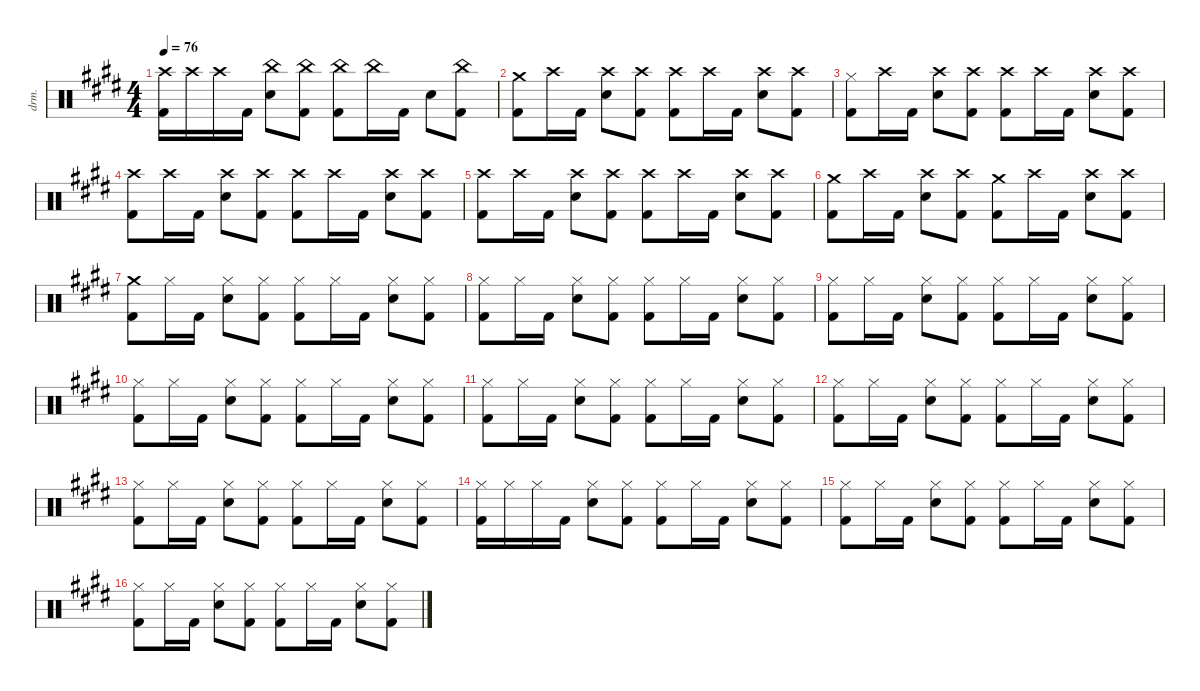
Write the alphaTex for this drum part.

\defaultSystemsLayout 4
\hideDynamics
\bracketExtendMode nobrackets
\otherSystemsTrackNameOrientation horizontal
\track ("Drums" "drm.") {instrument percussion}
\staff {score}
\articulation defaults
\ts (4 4)
\tempo 76
\clef neutral
\ks e
("Crash high (hit)"{acc forcenatural} "Kick (hit) 2"{acc forcenatural}).16{dy f beam Down} "Crash high (hit)"{acc forcenatural}.16{beam Down} "Crash high (hit)"{acc forcenatural}.16{beam Down} "Kick (hit) 2"{acc forcenatural}.16{beam Down} ("China (hit)"{acc forcenatural} "Snare (hit) 2"{acc forcenatural}).8{dy mf beam Down} ("China (hit)"{acc forcenatural} "Kick (hit) 2"{acc forcenatural}).8{dy f beam Down} ("China (hit)"{acc forcenatural} "Kick (hit) 2"{acc forcenatural}).8{beam Down} "China (hit)"{acc forcenatural}.16{beam Down} "Kick (hit) 2"{acc forcenatural}.16{beam Down} "Snare (hit) 2"{acc forcenatural}.8{beam Down} ("China (hit)"{acc forcenatural} "Kick (hit) 2"{acc forcenatural}).8{beam Down} |
("Crash medium (hit)"{acc forcenatural} "Kick (hit) 2"{acc forcenatural}).8{beam Down} "Crash high (hit)"{acc forcenatural}.16{beam Down} "Kick (hit) 2"{acc forcenatural}.16{beam Down} ("Crash high (hit)"{acc forcenatural} "Snare (hit) 2"{acc forcenatural}).8{dy mf beam Down} ("Crash high (hit)"{acc forcenatural} "Kick (hit) 2"{acc forcenatural}).8{dy f beam Down} ("Crash high (hit)"{acc forcenatural} "Kick (hit) 2"{acc forcenatural}).8{beam Down} "Crash high (hit)"{acc forcenatural}.16{beam Down} "Kick (hit) 2"{acc forcenatural}.16{beam Down} ("Crash high (hit)"{acc forcenatural} "Snare (hit) 2"{acc forcenatural}).8{dy mf beam Down} ("Crash high (hit)"{acc forcenatural} "Kick (hit) 2"{acc forcenatural}).8{dy f beam Down} |
("Hi-Hat (closed)"{acc forcenatural} "Kick (hit) 2"{acc forcenatural}).8{beam Down} "Crash high (hit)"{acc forcenatural}.16{beam Down} "Kick (hit) 2"{acc forcenatural}.16{beam Down} ("Crash high (hit)"{acc forcenatural} "Snare (hit) 2"{acc forcenatural}).8{dy mf beam Down} ("Crash high (hit)"{acc forcenatural} "Kick (hit) 2"{acc forcenatural}).8{dy f beam Down} ("Crash high (hit)"{acc forcenatural} "Kick (hit) 2"{acc forcenatural}).8{beam Down} "Crash high (hit)"{acc forcenatural}.16{beam Down} "Kick (hit) 2"{acc forcenatural}.16{beam Down} ("Crash high (hit)"{acc forcenatural} "Snare (hit) 2"{acc forcenatural}).8{dy mf beam Down} ("Crash high (hit)"{acc forcenatural} "Kick (hit) 2"{acc forcenatural}).8{dy f beam Down} |
("Crash high (hit)"{acc forcenatural} "Kick (hit) 2"{acc forcenatural}).8{beam Down} "Crash high (hit)"{acc forcenatural}.16{beam Down} "Kick (hit) 2"{acc forcenatural}.16{beam Down} ("Crash high (hit)"{acc forcenatural} "Snare (hit) 2"{acc forcenatural}).8{dy mf beam Down} ("Crash high (hit)"{acc forcenatural} "Kick (hit) 2"{acc forcenatural}).8{dy f beam Down} ("Crash high (hit)"{acc forcenatural} "Kick (hit) 2"{acc forcenatural}).8{beam Down} "Crash high (hit)"{acc forcenatural}.16{beam Down} "Kick (hit) 2"{acc forcenatural}.16{beam Down} ("Crash high (hit)"{acc forcenatural} "Snare (hit) 2"{acc forcenatural}).8{dy mf beam Down} ("Crash high (hit)"{acc forcenatural} "Kick (hit) 2"{acc forcenatural}).8{dy f beam Down} |
("Crash high (hit)"{acc forcenatural} "Kick (hit) 2"{acc forcenatural}).8{beam Down} "Crash high (hit)"{acc forcenatural}.16{beam Down} "Kick (hit) 2"{acc forcenatural}.16{beam Down} ("Crash high (hit)"{acc forcenatural} "Snare (hit) 2"{acc forcenatural}).8{dy mf beam Down} ("Crash high (hit)"{acc forcenatural} "Kick (hit) 2"{acc forcenatural}).8{dy f beam Down} ("Crash high (hit)"{acc forcenatural} "Kick (hit) 2"{acc forcenatural}).8{beam Down} "Crash high (hit)"{acc forcenatural}.16{beam Down} "Kick (hit) 2"{acc forcenatural}.16{beam Down} ("Crash high (hit)"{acc forcenatural} "Snare (hit) 2"{acc forcenatural}).8{dy mf beam Down} ("Crash high (hit)"{acc forcenatural} "Kick (hit) 2"{acc forcenatural}).8{dy f beam Down} |
("Crash medium (hit)"{acc forcenatural} "Kick (hit) 2"{acc forcenatural}).8{beam Down} "Crash high (hit)"{acc forcenatural}.16{beam Down} "Kick (hit) 2"{acc forcenatural}.16{beam Down} ("Crash high (hit)"{acc forcenatural} "Snare (hit) 2"{acc forcenatural}).8{dy mf beam Down} ("Crash high (hit)"{acc forcenatural} "Kick (hit) 2"{acc forcenatural}).8{dy f beam Down} ("Crash medium (hit)"{acc forcenatural} "Kick (hit) 2"{acc forcenatural}).8{beam Down} "Crash high (hit)"{acc forcenatural}.16{beam Down} "Kick (hit) 2"{acc forcenatural}.16{beam Down} ("Crash high (hit)"{acc forcenatural} "Snare (hit) 2"{acc forcenatural}).8{dy mf beam Down} ("Crash high (hit)"{acc forcenatural} "Kick (hit) 2"{acc forcenatural}).8{dy f beam Down} |
("Crash medium (hit)"{acc forcenatural} "Kick (hit) 2"{acc forcenatural}).8{beam Down} "Hi-Hat (closed)"{acc forcenatural}.16{beam Down} "Kick (hit) 2"{acc forcenatural}.16{beam Down} ("Hi-Hat (closed)"{acc forcenatural} "Snare (hit) 2"{acc forcenatural}).8{dy mf beam Down} ("Hi-Hat (closed)"{acc forcenatural} "Kick (hit) 2"{acc forcenatural}).8{dy f beam Down} ("Hi-Hat (closed)"{acc forcenatural} "Kick (hit) 2"{acc forcenatural}).8{beam Down} "Hi-Hat (closed)"{acc forcenatural}.16{beam Down} "Kick (hit) 2"{acc forcenatural}.16{beam Down} ("Hi-Hat (closed)"{acc forcenatural} "Snare (hit) 2"{acc forcenatural}).8{dy mf beam Down} ("Hi-Hat (closed)"{acc forcenatural} "Kick (hit) 2"{acc forcenatural}).8{dy f beam Down} |
("Hi-Hat (closed)"{acc forcenatural} "Kick (hit) 2"{acc forcenatural}).8{beam Down} "Hi-Hat (closed)"{acc forcenatural}.16{beam Down} "Kick (hit) 2"{acc forcenatural}.16{beam Down} ("Hi-Hat (closed)"{acc forcenatural} "Snare (hit) 2"{acc forcenatural}).8{dy mf beam Down} ("Hi-Hat (closed)"{acc forcenatural} "Kick (hit) 2"{acc forcenatural}).8{dy f beam Down} ("Hi-Hat (closed)"{acc forcenatural} "Kick (hit) 2"{acc forcenatural}).8{beam Down} "Hi-Hat (closed)"{acc forcenatural}.16{beam Down} "Kick (hit) 2"{acc forcenatural}.16{beam Down} ("Hi-Hat (closed)"{acc forcenatural} "Snare (hit) 2"{acc forcenatural}).8{dy mf beam Down} ("Hi-Hat (closed)"{acc forcenatural} "Kick (hit) 2"{acc forcenatural}).8{dy f beam Down} |
("Hi-Hat (closed)"{acc forcenatural} "Kick (hit) 2"{acc forcenatural}).8{beam Down} "Hi-Hat (closed)"{acc forcenatural}.16{beam Down} "Kick (hit) 2"{acc forcenatural}.16{beam Down} ("Hi-Hat (closed)"{acc forcenatural} "Snare (hit) 2"{acc forcenatural}).8{dy mf beam Down} ("Hi-Hat (closed)"{acc forcenatural} "Kick (hit) 2"{acc forcenatural}).8{dy f beam Down} ("Hi-Hat (closed)"{acc forcenatural} "Kick (hit) 2"{acc forcenatural}).8{beam Down} "Hi-Hat (closed)"{acc forcenatural}.16{beam Down} "Kick (hit) 2"{acc forcenatural}.16{beam Down} ("Hi-Hat (closed)"{acc forcenatural} "Snare (hit) 2"{acc forcenatural}).8{dy mf beam Down} ("Hi-Hat (closed)"{acc forcenatural} "Kick (hit) 2"{acc forcenatural}).8{dy f beam Down} |
("Hi-Hat (closed)"{acc forcenatural} "Kick (hit) 2"{acc forcenatural}).8{beam Down} "Hi-Hat (closed)"{acc forcenatural}.16{beam Down} "Kick (hit) 2"{acc forcenatural}.16{beam Down} ("Hi-Hat (closed)"{acc forcenatural} "Snare (hit) 2"{acc forcenatural}).8{dy mf beam Down} ("Hi-Hat (closed)"{acc forcenatural} "Kick (hit) 2"{acc forcenatural}).8{dy f beam Down} ("Hi-Hat (closed)"{acc forcenatural} "Kick (hit) 2"{acc forcenatural}).8{beam Down} "Hi-Hat (closed)"{acc forcenatural}.16{beam Down} "Kick (hit) 2"{acc forcenatural}.16{beam Down} ("Hi-Hat (closed)"{acc forcenatural} "Snare (hit) 2"{acc forcenatural}).8{dy mf beam Down} ("Hi-Hat (closed)"{acc forcenatural} "Kick (hit) 2"{acc forcenatural}).8{dy f beam Down} |
("Hi-Hat (closed)"{acc forcenatural} "Kick (hit) 2"{acc forcenatural}).8{beam Down} "Hi-Hat (closed)"{acc forcenatural}.16{beam Down} "Kick (hit) 2"{acc forcenatural}.16{beam Down} ("Hi-Hat (closed)"{acc forcenatural} "Snare (hit) 2"{acc forcenatural}).8{dy mf beam Down} ("Hi-Hat (closed)"{acc forcenatural} "Kick (hit) 2"{acc forcenatural}).8{dy f beam Down} ("Hi-Hat (closed)"{acc forcenatural} "Kick (hit) 2"{acc forcenatural}).8{beam Down} "Hi-Hat (closed)"{acc forcenatural}.16{beam Down} "Kick (hit) 2"{acc forcenatural}.16{beam Down} ("Hi-Hat (closed)"{acc forcenatural} "Snare (hit) 2"{acc forcenatural}).8{dy mf beam Down} ("Hi-Hat (closed)"{acc forcenatural} "Kick (hit) 2"{acc forcenatural}).8{dy f beam Down} |
("Hi-Hat (closed)"{acc forcenatural} "Kick (hit) 2"{acc forcenatural}).8{beam Down} "Hi-Hat (closed)"{acc forcenatural}.16{beam Down} "Kick (hit) 2"{acc forcenatural}.16{beam Down} ("Hi-Hat (closed)"{acc forcenatural} "Snare (hit) 2"{acc forcenatural}).8{dy mf beam Down} ("Hi-Hat (closed)"{acc forcenatural} "Kick (hit) 2"{acc forcenatural}).8{dy f beam Down} ("Hi-Hat (closed)"{acc forcenatural} "Kick (hit) 2"{acc forcenatural}).8{beam Down} "Hi-Hat (closed)"{acc forcenatural}.16{beam Down} "Kick (hit) 2"{acc forcenatural}.16{beam Down} ("Hi-Hat (closed)"{acc forcenatural} "Snare (hit) 2"{acc forcenatural}).8{dy mf beam Down} ("Hi-Hat (closed)"{acc forcenatural} "Kick (hit) 2"{acc forcenatural}).8{dy f beam Down} |
("Hi-Hat (closed)"{acc forcenatural} "Kick (hit) 2"{acc forcenatural}).8{beam Down} "Hi-Hat (closed)"{acc forcenatural}.16{beam Down} "Kick (hit) 2"{acc forcenatural}.16{beam Down} ("Hi-Hat (closed)"{acc forcenatural} "Snare (hit) 2"{acc forcenatural}).8{dy mf beam Down} ("Hi-Hat (closed)"{acc forcenatural} "Kick (hit) 2"{acc forcenatural}).8{dy f beam Down} ("Hi-Hat (closed)"{acc forcenatural} "Kick (hit) 2"{acc forcenatural}).8{beam Down} "Hi-Hat (closed)"{acc forcenatural}.16{beam Down} "Kick (hit) 2"{acc forcenatural}.16{beam Down} ("Hi-Hat (closed)"{acc forcenatural} "Snare (hit) 2"{acc forcenatural}).8{dy mf beam Down} ("Hi-Hat (closed)"{acc forcenatural} "Kick (hit) 2"{acc forcenatural}).8{dy f beam Down} |
("Hi-Hat (closed)"{acc forcenatural} "Kick (hit) 2"{acc forcenatural}).16{beam Down} "Hi-Hat (closed)"{acc forcenatural}.16{dy mf beam Down} "Hi-Hat (closed)"{acc forcenatural}.16{dy f beam Down} "Kick (hit) 2"{acc forcenatural}.16{beam Down} ("Hi-Hat (closed)"{acc forcenatural} "Snare (hit) 2"{acc forcenatural}).8{dy mf beam Down} ("Hi-Hat (closed)"{acc forcenatural} "Kick (hit) 2"{acc forcenatural}).8{dy f beam Down} ("Hi-Hat (closed)"{acc forcenatural} "Kick (hit) 2"{acc forcenatural}).8{beam Down} "Hi-Hat (closed)"{acc forcenatural}.16{beam Down} "Kick (hit) 2"{acc forcenatural}.16{beam Down} ("Hi-Hat (closed)"{acc forcenatural} "Snare (hit) 2"{acc forcenatural}).8{dy mf beam Down} ("Hi-Hat (closed)"{acc forcenatural} "Kick (hit) 2"{acc forcenatural}).8{dy f beam Down} |
("Hi-Hat (closed)"{acc forcenatural} "Kick (hit) 2"{acc forcenatural}).8{beam Down} "Hi-Hat (closed)"{acc forcenatural}.16{beam Down} "Kick (hit) 2"{acc forcenatural}.16{beam Down} ("Hi-Hat (closed)"{acc forcenatural} "Snare (hit) 2"{acc forcenatural}).8{dy mf beam Down} ("Hi-Hat (closed)"{acc forcenatural} "Kick (hit) 2"{acc forcenatural}).8{dy f beam Down} ("Hi-Hat (closed)"{acc forcenatural} "Kick (hit) 2"{acc forcenatural}).8{beam Down} "Hi-Hat (closed)"{acc forcenatural}.16{beam Down} "Kick (hit) 2"{acc forcenatural}.16{beam Down} ("Hi-Hat (closed)"{acc forcenatural} "Snare (hit) 2"{acc forcenatural}).8{dy mf beam Down} ("Hi-Hat (closed)"{acc forcenatural} "Kick (hit) 2"{acc forcenatural}).8{dy f beam Down} |
("Hi-Hat (closed)"{acc forcenatural} "Kick (hit) 2"{acc forcenatural}).8{beam Down} "Hi-Hat (closed)"{acc forcenatural}.16{beam Down} "Kick (hit) 2"{acc forcenatural}.16{beam Down} ("Hi-Hat (closed)"{acc forcenatural} "Snare (hit) 2"{acc forcenatural}).8{dy mf beam Down} ("Hi-Hat (closed)"{acc forcenatural} "Kick (hit) 2"{acc forcenatural}).8{dy f beam Down} ("Hi-Hat (closed)"{acc forcenatural} "Kick (hit) 2"{acc forcenatural}).8{beam Down} "Hi-Hat (closed)"{acc forcenatural}.16{beam Down} "Kick (hit) 2"{acc forcenatural}.16{beam Down} ("Hi-Hat (closed)"{acc forcenatural} "Snare (hit) 2"{acc forcenatural}).8{dy mf beam Down} ("Hi-Hat (closed)"{acc forcenatural} "Kick (hit) 2"{acc forcenatural}).8{dy f beam Down}
